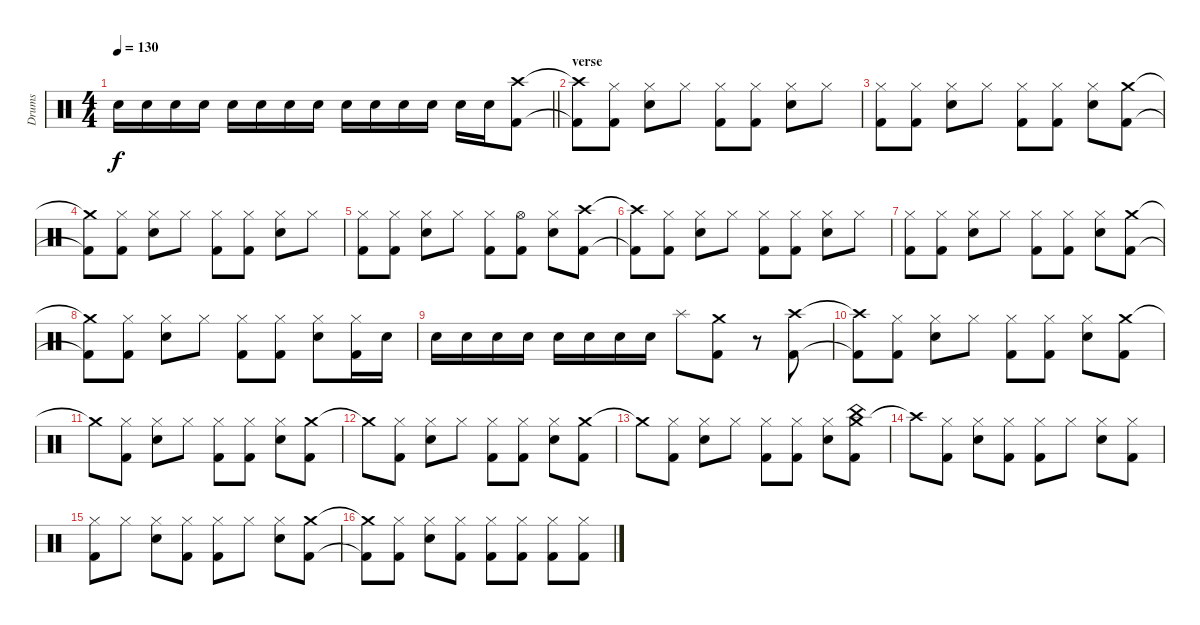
\track ("Drums" "Drums") {instrument percussion}
\staff {score}
\articulation defaults
\ts (4 4)
\tempo 130
\clef neutral
\barLineRight lightlight
\ks c "Electric Snare (hit)".16{dy f} "Electric Snare (hit)".16 "Electric Snare (hit)".16 "Electric Snare (hit)".16 "Electric Snare (hit)".16 "Electric Snare (hit)".16 "Electric Snare (hit)".16 "Electric Snare (hit)".16 "Electric Snare (hit)".16 "Electric Snare (hit)".16 "Electric Snare (hit)".16 "Electric Snare (hit)".16 "Electric Snare (hit)".16 "Electric Snare (hit)".16
("Crash high (hit)" "Kick (hit) 2").8 |
\section ("" "verse")
("Crash high (hit)"{t} "Kick (hit) 2"{t}).8 ("Hi-Hat (closed)" "Kick (hit) 2").8 ("Hi-Hat (closed)" "Electric Snare (hit)").8 "Hi-Hat (closed)".8 ("Hi-Hat (closed)" "Kick (hit) 2").8 ("Hi-Hat (closed)" "Kick (hit) 2").8 ("Hi-Hat (closed)" "Electric Snare (hit)").8 "Hi-Hat (closed)".8 |
("Hi-Hat (closed)" "Kick (hit) 2").8 ("Hi-Hat (closed)" "Kick (hit) 2").8 ("Hi-Hat (closed)" "Electric Snare (hit)").8 "Hi-Hat (closed)".8 ("Hi-Hat (closed)" "Kick (hit) 2").8 ("Hi-Hat (closed)" "Kick (hit) 2").8 ("Hi-Hat (closed)" "Electric Snare (hit)").8 ("Crash medium (hit)" "Kick (hit) 2").8 |
("Crash medium (hit)"{t} "Kick (hit) 2"{t}).8 ("Hi-Hat (closed)" "Kick (hit) 2").8 ("Hi-Hat (closed)" "Electric Snare (hit)").8 "Hi-Hat (closed)".8 ("Hi-Hat (closed)" "Kick (hit) 2").8 ("Hi-Hat (closed)" "Kick (hit) 2").8 ("Hi-Hat (closed)" "Electric Snare (hit)").8 "Hi-Hat (closed)".8 |
("Hi-Hat (closed)" "Kick (hit) 2").8 ("Hi-Hat (closed)" "Kick (hit) 2").8 ("Hi-Hat (closed)" "Electric Snare (hit)").8 "Hi-Hat (closed)".8 ("Hi-Hat (closed)" "Kick (hit) 2").8 ("Hi-Hat (open)" "Kick (hit) 2").8 ("Hi-Hat (closed)" "Electric Snare (hit)").8 ("Crash high (hit)" "Kick (hit) 2").8 |
("Crash high (hit)"{t} "Kick (hit) 2"{t}).8 ("Hi-Hat (closed)" "Kick (hit) 2").8 ("Hi-Hat (closed)" "Electric Snare (hit)").8 "Hi-Hat (closed)".8 ("Hi-Hat (closed)" "Kick (hit) 2").8 ("Hi-Hat (closed)" "Kick (hit) 2").8 ("Hi-Hat (closed)" "Electric Snare (hit)").8 "Hi-Hat (closed)".8 |
("Hi-Hat (closed)" "Kick (hit) 2").8 ("Hi-Hat (closed)" "Kick (hit) 2").8 ("Hi-Hat (closed)" "Electric Snare (hit)").8 "Hi-Hat (closed)".8 ("Hi-Hat (closed)" "Kick (hit) 2").8 ("Hi-Hat (closed)" "Kick (hit) 2").8 ("Hi-Hat (closed)" "Electric Snare (hit)").8 ("Crash medium (hit)" "Kick (hit) 2").8 |
("Crash medium (hit)"{t} "Kick (hit) 2"{t}).8 ("Hi-Hat (closed)" "Kick (hit) 2").8 ("Hi-Hat (closed)" "Electric Snare (hit)").8 "Hi-Hat (closed)".8 ("Hi-Hat (closed)" "Kick (hit) 2").8 ("Hi-Hat (closed)" "Kick (hit) 2").8 ("Hi-Hat (closed)" "Electric Snare (hit)").8 ("Hi-Hat (closed)" "Kick (hit) 2").16 "Electric Snare (hit)".16 |
"Electric Snare (hit)".16 "Electric Snare (hit)".16 "Electric Snare (hit)".16 "Electric Snare (hit)".16 "Electric Snare (hit)".16 "Electric Snare (hit)".16 "Electric Snare (hit)".16 "Electric Snare (hit)".16 "Splash (hit)".8 ("Crash medium (hit)" "Kick (hit) 2").8 r.8 ("Crash high (hit)" "Kick (hit) 2").8 |
("Crash high (hit)"{t} "Kick (hit) 2"{t}).8 ("Hi-Hat (closed)" "Kick (hit) 2").8 ("Hi-Hat (closed)" "Electric Snare (hit)").8 "Hi-Hat (closed)".8 ("Hi-Hat (closed)" "Kick (hit) 2").8 ("Hi-Hat (closed)" "Kick (hit) 2").8 ("Hi-Hat (closed)" "Electric Snare (hit)").8 ("Crash medium (hit)" "Kick (hit) 2").8 |
"Crash medium (hit)"{t}.8 ("Hi-Hat (closed)" "Kick (hit) 2").8 ("Hi-Hat (closed)" "Electric Snare (hit)").8 "Hi-Hat (closed)".8 ("Hi-Hat (closed)" "Kick (hit) 2").8 ("Hi-Hat (closed)" "Kick (hit) 2").8 ("Hi-Hat (closed)" "Electric Snare (hit)").8 ("Crash medium (hit)" "Kick (hit) 2").8 |
"Crash medium (hit)"{t}.8 ("Hi-Hat (closed)" "Kick (hit) 2").8 ("Hi-Hat (closed)" "Electric Snare (hit)").8 "Hi-Hat (closed)".8 ("Hi-Hat (closed)" "Kick (hit) 2").8 ("Hi-Hat (closed)" "Kick (hit) 2").8 ("Hi-Hat (closed)" "Electric Snare (hit)").8 ("Crash medium (hit)" "Kick (hit) 2").8 |
"Crash medium (hit)"{t}.8 ("Hi-Hat (closed)" "Kick (hit) 2").8 ("Hi-Hat (closed)" "Electric Snare (hit)").8 "Hi-Hat (closed)".8 ("Hi-Hat (closed)" "Kick (hit) 2").8 ("Hi-Hat (closed)" "Kick (hit) 2").8 ("Hi-Hat (closed)" "Electric Snare (hit)").8 ("Crash medium (hit)" "China (hit)" "Kick (hit) 2").8 |
"Crash high (hit)"{t}.8 ("Hi-Hat (closed)" "Kick (hit) 2").8 ("Hi-Hat (closed)" "Electric Snare (hit)").8 ("Hi-Hat (closed)" "Kick (hit) 2").8 ("Hi-Hat (closed)" "Kick (hit) 2").8 "Hi-Hat (closed)".8 ("Hi-Hat (closed)" "Electric Snare (hit)").8 ("Hi-Hat (closed)" "Kick (hit) 2").8 |
("Hi-Hat (closed)" "Kick (hit) 2").8 "Hi-Hat (closed)".8 ("Hi-Hat (closed)" "Electric Snare (hit)").8 ("Hi-Hat (closed)" "Kick (hit) 2").8 ("Hi-Hat (closed)" "Kick (hit) 2").8 "Hi-Hat (closed)".8 ("Hi-Hat (closed)" "Electric Snare (hit)").8 ("Crash medium (hit)" "Kick (hit) 2").8 |
("Crash medium (hit)"{t} "Kick (hit) 2"{t}).8 ("Hi-Hat (closed)" "Kick (hit) 2").8 ("Hi-Hat (closed)" "Electric Snare (hit)").8 ("Hi-Hat (closed)" "Kick (hit) 2").8 ("Hi-Hat (closed)" "Kick (hit) 2").8 ("Hi-Hat (closed)" "Kick (hit) 2").8 ("Hi-Hat (closed)" "Kick (hit) 2").8 ("Hi-Hat (closed)" "Kick (hit) 2").8
